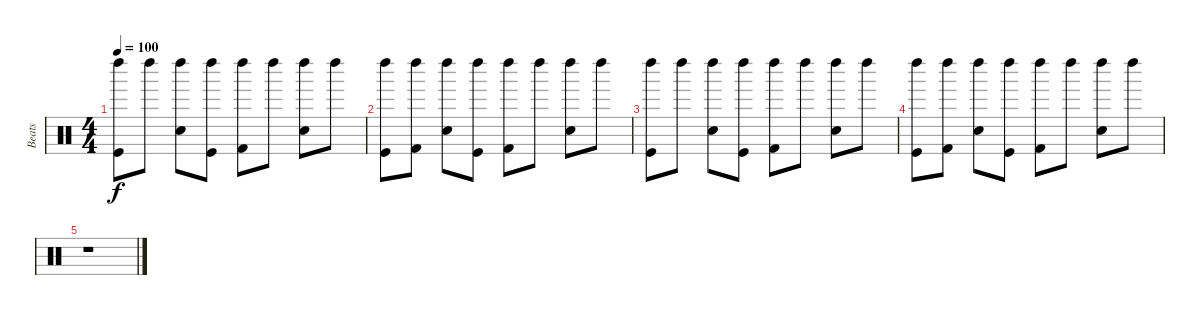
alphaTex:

\track ("Beats " "Beats ") {instrument percussion}
\staff {score}
\articulation defaults
\ts (4 4)
\tempo 100
\clef neutral
\ks c
("Left Maraca (hit)" "Kick (hit)").8{dy f} "Left Maraca (hit)".8 ("Left Maraca (hit)" "Snare (hit) 2").8 ("Left Maraca (hit)" "Kick (hit)").8 ("Left Maraca (hit)" "Kick (hit) 2").8 "Left Maraca (hit)".8 ("Left Maraca (hit)" "Snare (hit) 2").8 "Left Maraca (hit)".8 |
("Left Maraca (hit)" "Kick (hit)").8 ("Left Maraca (hit)" "Kick (hit) 2").8 ("Left Maraca (hit)" "Snare (hit) 2").8 ("Left Maraca (hit)" "Kick (hit)").8 ("Left Maraca (hit)" "Kick (hit) 2").8 "Left Maraca (hit)".8 ("Left Maraca (hit)" "Snare (hit) 2").8 "Left Maraca (hit)".8 |
("Left Maraca (hit)" "Kick (hit)").8 "Left Maraca (hit)".8 ("Left Maraca (hit)" "Snare (hit) 2").8 ("Left Maraca (hit)" "Kick (hit)").8 ("Left Maraca (hit)" "Kick (hit) 2").8 "Left Maraca (hit)".8 ("Left Maraca (hit)" "Snare (hit) 2").8 "Left Maraca (hit)".8 |
("Left Maraca (hit)" "Kick (hit)").8 ("Left Maraca (hit)" "Kick (hit) 2").8 ("Left Maraca (hit)" "Snare (hit) 2").8 ("Left Maraca (hit)" "Kick (hit)").8 ("Left Maraca (hit)" "Kick (hit) 2").8 "Left Maraca (hit)".8 ("Left Maraca (hit)" "Snare (hit) 2").8 "Left Maraca (hit)".8 |
r.1
